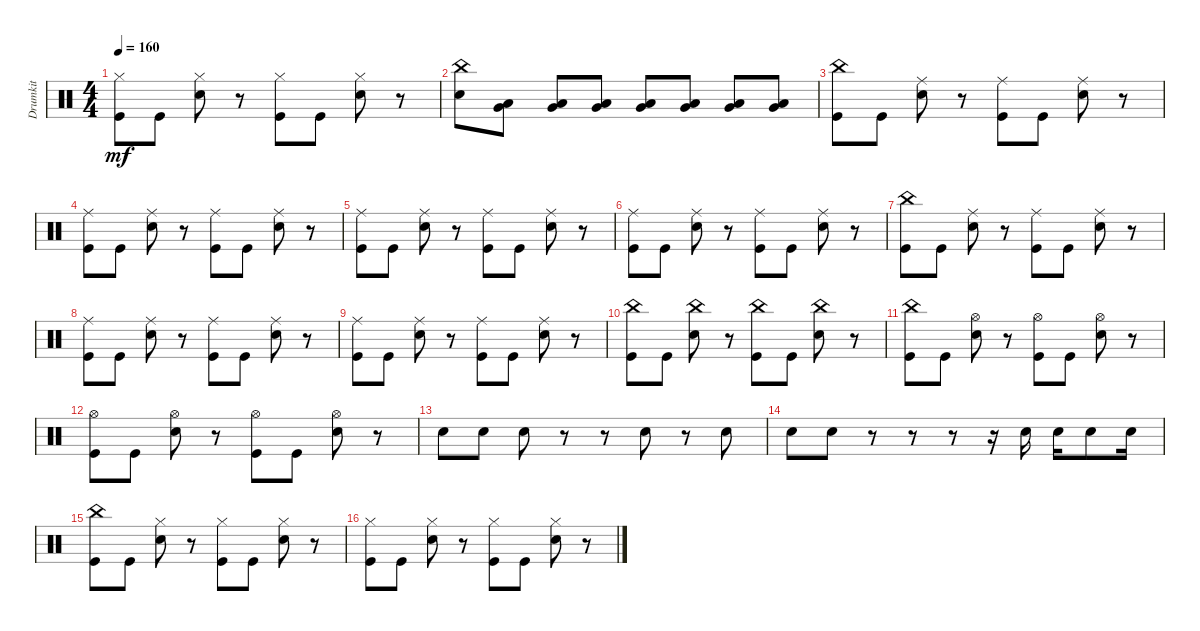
\track ("Drumkit" "Drumkit") {instrument percussion}
\staff {score}
\articulation defaults
\ts (4 4)
\tempo 160
\clef neutral
\ks c
("Kick (hit)" "Hi-Hat (closed)").8{dy mf} "Kick (hit)".8 ("Snare (hit) 2" "Hi-Hat (closed)").8 r.8 ("Kick (hit)" "Hi-Hat (closed)").8 "Kick (hit)".8 ("Snare (hit) 2" "Hi-Hat (closed)").8 r.8 |
("Snare (hit) 2" "China (hit)").8 ("Low Tom (hit)" "Very Low Tom (hit)").8 ("Low Tom (hit)" "Very Low Tom (hit)").8 ("Low Tom (hit)" "Very Low Tom (hit)").8 ("Low Tom (hit)" "Very Low Tom (hit)").8 ("Low Tom (hit)" "Very Low Tom (hit)").8 ("Low Tom (hit)" "Very Low Tom (hit)").8 ("Low Tom (hit)" "Very Low Tom (hit)").8 |
("Kick (hit)" "China (hit)").8 "Kick (hit)".8 ("Snare (hit) 2" "Ride (middle)").8 r.8 ("Kick (hit)" "Ride (middle)").8 "Kick (hit)".8 ("Snare (hit) 2" "Ride (middle)").8 r.8 |
("Kick (hit)" "Ride (middle)").8 "Kick (hit)".8 ("Snare (hit) 2" "Ride (middle)").8 r.8 ("Kick (hit)" "Ride (middle)").8 "Kick (hit)".8 ("Snare (hit) 2" "Ride (middle)").8 r.8 |
("Kick (hit)" "Ride (middle)").8 "Kick (hit)".8 ("Snare (hit) 2" "Ride (middle)").8 r.8 ("Kick (hit)" "Ride (middle)").8 "Kick (hit)".8 ("Snare (hit) 2" "Ride (middle)").8 r.8 |
("Kick (hit)" "Ride (middle)").8 "Kick (hit)".8 ("Snare (hit) 2" "Ride (middle)").8 r.8 ("Kick (hit)" "Ride (middle)").8 "Kick (hit)".8 ("Snare (hit) 2" "Ride (middle)").8 r.8 |
("Kick (hit)" "China (hit)").8 "Kick (hit)".8 ("Snare (hit) 2" "Ride (middle)").8 r.8 ("Kick (hit)" "Ride (middle)").8 "Kick (hit)".8 ("Snare (hit) 2" "Ride (middle)").8 r.8 |
("Kick (hit)" "Ride (middle)").8 "Kick (hit)".8 ("Snare (hit) 2" "Ride (middle)").8 r.8 ("Kick (hit)" "Ride (middle)").8 "Kick (hit)".8 ("Snare (hit) 2" "Ride (middle)").8 r.8 |
("Kick (hit)" "Ride (middle)").8 "Kick (hit)".8 ("Snare (hit) 2" "Ride (middle)").8 r.8 ("Kick (hit)" "Ride (middle)").8 "Kick (hit)".8 ("Snare (hit) 2" "Ride (middle)").8 r.8 |
("Kick (hit)" "China (hit)").8 "Kick (hit)".8 ("Snare (hit) 2" "China (hit)").8 r.8 ("Kick (hit)" "China (hit)").8 "Kick (hit)".8 ("Snare (hit) 2" "China (hit)").8 r.8 |
("Kick (hit)" "China (hit)").8 "Kick (hit)".8 ("Snare (hit) 2" "Hi-Hat (open)").8 r.8 ("Kick (hit)" "Hi-Hat (open)").8 "Kick (hit)".8 ("Snare (hit) 2" "Hi-Hat (open)").8 r.8 |
("Kick (hit)" "Hi-Hat (open)").8 "Kick (hit)".8 ("Snare (hit) 2" "Hi-Hat (open)").8 r.8 ("Kick (hit)" "Hi-Hat (open)").8 "Kick (hit)".8 ("Snare (hit) 2" "Hi-Hat (open)").8 r.8 |
"Snare (hit) 2".8 "Snare (hit) 2".8 "Snare (hit) 2".8 r.8 r.8 "Snare (hit) 2".8 r.8 "Snare (hit) 2".8 |
"Snare (hit) 2".8 "Snare (hit) 2".8 r.8 r.8 r.8 r.16 "Snare (hit) 2".16 "Snare (hit) 2".16 "Snare (hit) 2".8 "Snare (hit) 2".16 |
("Kick (hit)" "China (hit)").8 "Kick (hit)".8 ("Snare (hit) 2" "Hi-Hat (closed)").8 r.8 ("Kick (hit)" "Hi-Hat (closed)").8 "Kick (hit)".8 ("Snare (hit) 2" "Hi-Hat (closed)").8 r.8 |
("Kick (hit)" "Hi-Hat (closed)").8 "Kick (hit)".8 ("Snare (hit) 2" "Hi-Hat (closed)").8 r.8 ("Kick (hit)" "Hi-Hat (closed)").8 "Kick (hit)".8 ("Snare (hit) 2" "Hi-Hat (closed)").8 r.8
